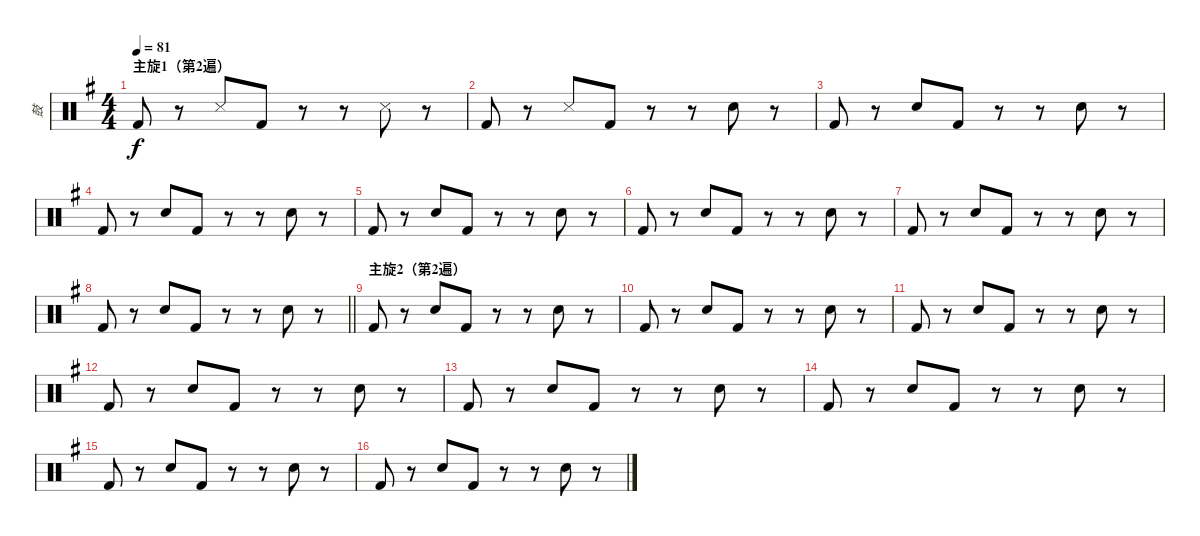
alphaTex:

\track ("鼓" "鼓") {instrument percussion}
\staff {score}
\articulation defaults
\ts (4 4)
\section ("" "主旋1（第2遍）")
\tempo 81
\clef neutral
\ks g "Kick (hit) 2".8{dy f}
r.8 "Metronome (hit)".8 "Kick (hit) 2".8 r.8 r.8 "Metronome (hit)".8 r.8 |
"Kick (hit) 2".8 r.8 "Metronome (hit)".8 "Kick (hit) 2".8 r.8 r.8 "Electric Snare (hit)".8 r.8 |
"Kick (hit) 2".8 r.8 "Electric Snare (hit)".8 "Kick (hit) 2".8 r.8 r.8 "Electric Snare (hit)".8 r.8 |
"Kick (hit) 2".8 r.8 "Electric Snare (hit)".8 "Kick (hit) 2".8 r.8 r.8 "Electric Snare (hit)".8 r.8 |
"Kick (hit) 2".8 r.8 "Electric Snare (hit)".8 "Kick (hit) 2".8 r.8 r.8 "Electric Snare (hit)".8 r.8 |
"Kick (hit) 2".8 r.8 "Electric Snare (hit)".8 "Kick (hit) 2".8 r.8 r.8 "Electric Snare (hit)".8 r.8 |
"Kick (hit) 2".8 r.8 "Electric Snare (hit)".8 "Kick (hit) 2".8 r.8 r.8 "Electric Snare (hit)".8 r.8 |
\barLineRight lightlight "Kick (hit) 2".8
r.8 "Electric Snare (hit)".8 "Kick (hit) 2".8 r.8 r.8 "Electric Snare (hit)".8 r.8 |
\section ("" "主旋2（第2遍）")
"Kick (hit) 2".8 r.8 "Electric Snare (hit)".8 "Kick (hit) 2".8 r.8 r.8 "Electric Snare (hit)".8 r.8 |
"Kick (hit) 2".8 r.8 "Electric Snare (hit)".8 "Kick (hit) 2".8 r.8 r.8 "Electric Snare (hit)".8 r.8 |
"Kick (hit) 2".8 r.8 "Electric Snare (hit)".8 "Kick (hit) 2".8 r.8 r.8 "Electric Snare (hit)".8 r.8 |
"Kick (hit) 2".8 r.8 "Electric Snare (hit)".8 "Kick (hit) 2".8 r.8 r.8 "Electric Snare (hit)".8 r.8 |
"Kick (hit) 2".8 r.8 "Electric Snare (hit)".8 "Kick (hit) 2".8 r.8 r.8 "Electric Snare (hit)".8 r.8 |
"Kick (hit) 2".8 r.8 "Electric Snare (hit)".8 "Kick (hit) 2".8 r.8 r.8 "Electric Snare (hit)".8 r.8 |
"Kick (hit) 2".8 r.8 "Electric Snare (hit)".8 "Kick (hit) 2".8 r.8 r.8 "Electric Snare (hit)".8 r.8 |
"Kick (hit) 2".8 r.8 "Electric Snare (hit)".8 "Kick (hit) 2".8 r.8 r.8 "Electric Snare (hit)".8 r.8
